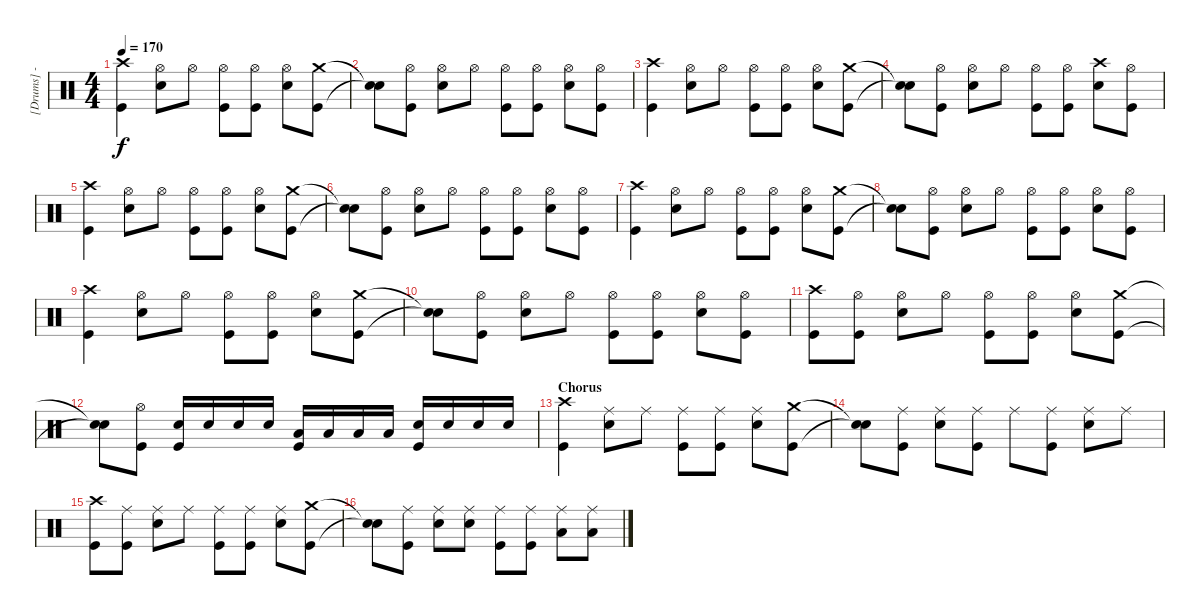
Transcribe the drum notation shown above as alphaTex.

\track ("[Drums] - Trè Cool" "[Drums] - ") {instrument percussion}
\staff {score}
\articulation defaults
\ts (4 4)
\tempo 170
\clef neutral
\ks c
("Kick (hit)" "Crash high (hit)").4{dy f} ("Snare (hit) 2" "Hi-Hat (open)").8 "Hi-Hat (open)".8 ("Kick (hit)" "Hi-Hat (open)").8 ("Kick (hit)" "Hi-Hat (open)").8 ("Snare (hit) 2" "Hi-Hat (open)").8 ("Kick (hit)" "Crash medium (hit)").8 |
("Snare (hit)"{t} "Snare (hit)"{t}).8 ("Kick (hit)" "Hi-Hat (open)").8 ("Snare (hit) 2" "Hi-Hat (open)").8 "Hi-Hat (open)".8 ("Kick (hit)" "Hi-Hat (open)").8 ("Kick (hit)" "Hi-Hat (open)").8 ("Snare (hit) 2" "Hi-Hat (open)").8 ("Kick (hit)" "Hi-Hat (open)").8 |
("Kick (hit)" "Crash high (hit)").4 ("Snare (hit) 2" "Hi-Hat (open)").8 "Hi-Hat (open)".8 ("Hi-Hat (open)" "Kick (hit)").8 ("Kick (hit)" "Hi-Hat (open)").8 ("Snare (hit) 2" "Hi-Hat (open)").8 ("Kick (hit)" "Crash medium (hit)").8 |
("Snare (hit)"{t} "Snare (hit)"{t}).8 ("Kick (hit)" "Hi-Hat (open)").8 ("Snare (hit) 2" "Hi-Hat (open)").8 "Hi-Hat (open)".8 ("Kick (hit)" "Hi-Hat (open)").8 ("Kick (hit)" "Hi-Hat (open)").8 ("Snare (hit) 2" "Crash high (hit)").8 ("Kick (hit)" "Hi-Hat (open)").8 |
("Kick (hit)" "Crash high (hit)").4 ("Snare (hit) 2" "Hi-Hat (open)").8 "Hi-Hat (open)".8 ("Kick (hit)" "Hi-Hat (open)").8 ("Kick (hit)" "Hi-Hat (open)").8 ("Snare (hit) 2" "Hi-Hat (open)").8 ("Kick (hit)" "Crash medium (hit)").8 |
("Snare (hit)"{t} "Snare (hit)"{t}).8 ("Kick (hit)" "Hi-Hat (open)").8 ("Snare (hit) 2" "Hi-Hat (open)").8 "Hi-Hat (open)".8 ("Kick (hit)" "Hi-Hat (open)").8 ("Kick (hit)" "Hi-Hat (open)").8 ("Snare (hit) 2" "Hi-Hat (open)").8 ("Kick (hit)" "Hi-Hat (open)").8 |
("Kick (hit)" "Crash high (hit)").4 ("Snare (hit) 2" "Hi-Hat (open)").8 "Hi-Hat (open)".8 ("Kick (hit)" "Hi-Hat (open)").8 ("Kick (hit)" "Hi-Hat (open)").8 ("Snare (hit) 2" "Hi-Hat (open)").8 ("Kick (hit)" "Crash medium (hit)").8 |
("Snare (hit)"{t} "Snare (hit)"{t}).8 ("Kick (hit)" "Hi-Hat (open)").8 ("Snare (hit) 2" "Hi-Hat (open)").8 "Hi-Hat (open)".8 ("Kick (hit)" "Hi-Hat (open)").8 ("Kick (hit)" "Hi-Hat (open)").8 ("Snare (hit) 2" "Hi-Hat (open)").8 ("Kick (hit)" "Hi-Hat (open)").8 |
("Kick (hit)" "Crash high (hit)").4 ("Snare (hit) 2" "Hi-Hat (open)").8 "Hi-Hat (open)".8 ("Kick (hit)" "Hi-Hat (open)").8 ("Kick (hit)" "Hi-Hat (open)").8 ("Snare (hit) 2" "Hi-Hat (open)").8 ("Kick (hit)" "Crash medium (hit)").8 |
("Snare (hit)"{t} "Snare (hit)"{t}).8 ("Kick (hit)" "Hi-Hat (open)").8 ("Snare (hit) 2" "Hi-Hat (open)").8 "Hi-Hat (open)".8 ("Kick (hit)" "Hi-Hat (open)").8 ("Kick (hit)" "Hi-Hat (open)").8 ("Snare (hit) 2" "Hi-Hat (open)").8 ("Kick (hit)" "Hi-Hat (open)").8 |
("Kick (hit)" "Crash high (hit)").8 ("Kick (hit)" "Hi-Hat (open)").8 ("Snare (hit) 2" "Hi-Hat (open)").8 "Hi-Hat (open)".8 ("Hi-Hat (open)" "Kick (hit)").8 ("Kick (hit)" "Hi-Hat (open)").8 ("Snare (hit) 2" "Hi-Hat (open)").8 ("Kick (hit)" "Crash medium (hit)").8 |
("Snare (hit)"{t} "Snare (hit)"{t}).8 ("Kick (hit)" "Hi-Hat (open)").8 ("Snare (hit) 2" "Kick (hit)").16 "Snare (hit) 2".16 "Snare (hit) 2".16 "Snare (hit) 2".16 ("Low Tom (hit)" "Kick (hit)").16 "Low Tom (hit)".16 "Low Tom (hit)".16 "Low Tom (hit)".16 ("Snare (hit) 2" "Kick (hit)").16 "Snare (hit) 2".16 "Snare (hit) 2".16 "Snare (hit) 2".16 |
\section ("" "Chorus")
("Kick (hit)" "Crash high (hit)").4 ("Snare (hit) 2" "Ride (middle)").8 "Ride (middle)".8 ("Kick (hit)" "Ride (middle)").8 ("Kick (hit)" "Ride (middle)").8 ("Snare (hit) 2" "Ride (middle)").8 ("Kick (hit)" "Crash medium (hit)").8 |
("Snare (hit)"{t} "Snare (hit)"{t}).8 ("Kick (hit)" "Ride (middle)").8 ("Snare (hit) 2" "Ride (middle)").8 ("Kick (hit)" "Ride (middle)").8 "Ride (middle)".8 ("Kick (hit)" "Ride (middle)").8 ("Snare (hit) 2" "Ride (middle)").8 "Ride (middle)".8 |
("Kick (hit)" "Crash high (hit)").8 ("Kick (hit)" "Ride (middle)").8 ("Snare (hit) 2" "Ride (middle)").8 "Ride (middle)".8 ("Kick (hit)" "Ride (middle)").8 ("Kick (hit)" "Ride (middle)").8 ("Snare (hit) 2" "Ride (middle)").8 ("Kick (hit)" "Crash medium (hit)").8 |
("Snare (hit)"{t} "Snare (hit)"{t}).8 ("Kick (hit)" "Ride (middle)").8 ("Snare (hit) 2" "Ride (middle)").8 ("Snare (hit) 2" "Ride (middle)").8 ("Kick (hit)" "Ride (middle)").8 ("Kick (hit)" "Ride (middle)").8 ("Low Tom (hit)" "Ride (middle)").8 ("Low Tom (hit)" "Ride (middle)").8
